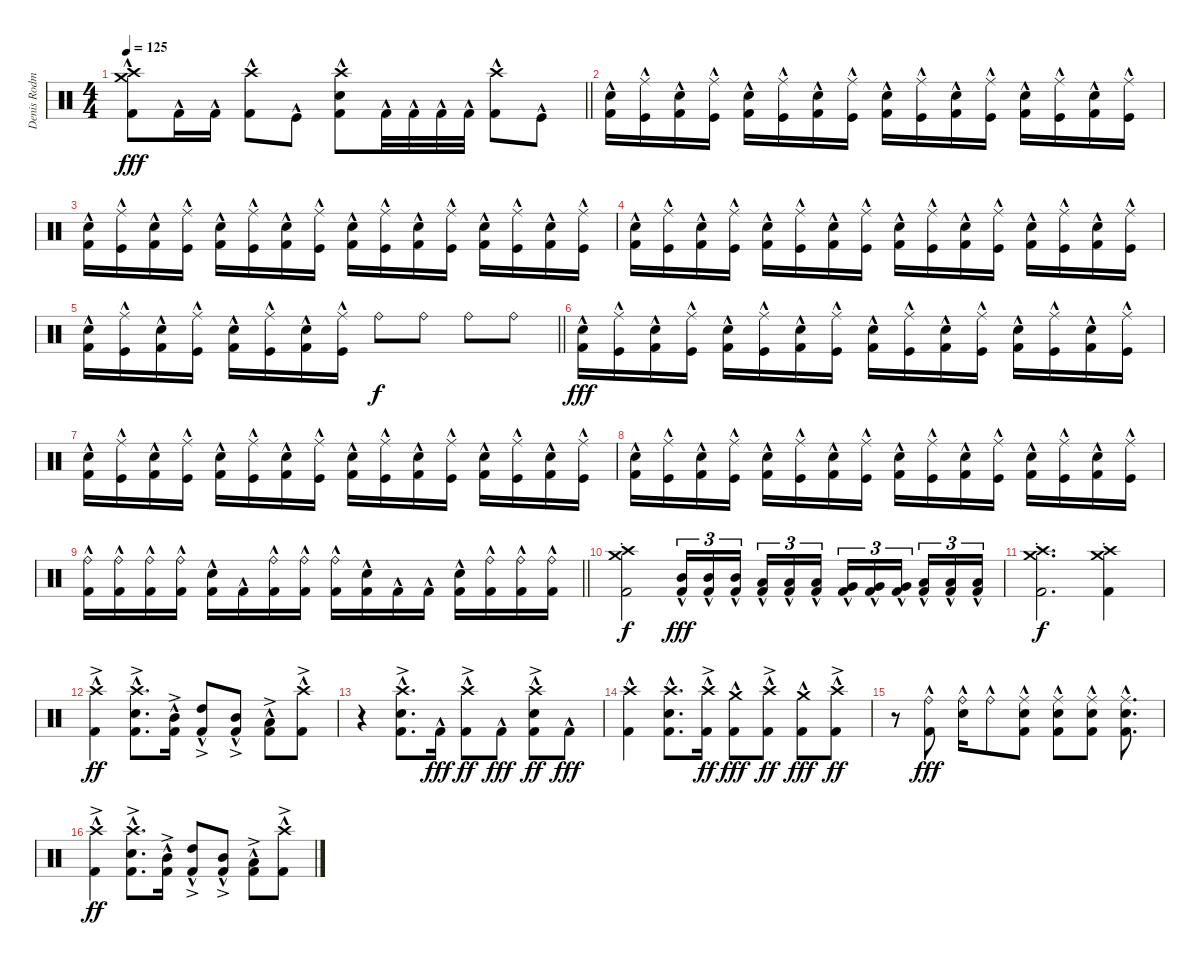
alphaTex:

\track ("Denis Rodman" "Denis Rodm") {instrument percussion}
\staff {score}
\articulation defaults
\ts (4 4)
\tempo 125
\clef neutral
\barLineRight lightlight
\ks c
("Crash high (hit)" "Kick (hit) 2"{hac} "Crash medium (hit)").8{dy fff} "Kick (hit) 2"{hac}.16 "Kick (hit) 2"{hac}.16 ("Crash high (hit)" "Kick (hit) 2"{hac}).8 "Kick (hit)"{hac}.8 ("Crash high (hit)" "Kick (hit) 2"{hac} "Snare (hit) 2").8 "Kick (hit) 2"{hac}.32 "Kick (hit) 2"{hac}.32 "Kick (hit) 2"{hac}.32 "Kick (hit) 2"{hac}.32 ("Crash high (hit)" "Kick (hit) 2"{hac}).8 "Kick (hit)"{hac}.8 |
("Kick (hit) 2"{hac} "Snare (hit) 2").16 ("Ride (middle)"{hac} "Kick (hit)"{hac}).16 ("Kick (hit) 2"{hac} "Snare (hit) 2").16 ("Ride (middle)"{hac} "Kick (hit)"{hac}).16 ("Kick (hit) 2"{hac} "Snare (hit) 2").16 ("Ride (middle)"{hac} "Kick (hit)"{hac}).16 ("Kick (hit) 2"{hac} "Snare (hit) 2").16 ("Ride (middle)"{hac} "Kick (hit)"{hac}).16 ("Kick (hit) 2"{hac} "Snare (hit) 2").16 ("Ride (middle)"{hac} "Kick (hit)"{hac}).16 ("Kick (hit) 2"{hac} "Snare (hit) 2").16 ("Ride (middle)"{hac} "Kick (hit)"{hac}).16 ("Kick (hit) 2"{hac} "Snare (hit) 2").16 ("Ride (middle)"{hac} "Kick (hit)"{hac}).16 ("Kick (hit) 2"{hac} "Snare (hit) 2").16 ("Ride (middle)"{hac} "Kick (hit)"{hac}).16 |
("Kick (hit) 2"{hac} "Snare (hit) 2").16 ("Ride (middle)"{hac} "Kick (hit)"{hac}).16 ("Kick (hit) 2"{hac} "Snare (hit) 2").16 ("Ride (middle)"{hac} "Kick (hit)"{hac}).16 ("Kick (hit) 2"{hac} "Snare (hit) 2").16 ("Ride (middle)"{hac} "Kick (hit)"{hac}).16 ("Kick (hit) 2"{hac} "Snare (hit) 2").16 ("Ride (middle)"{hac} "Kick (hit)"{hac}).16 ("Kick (hit) 2"{hac} "Snare (hit) 2").16 ("Ride (middle)"{hac} "Kick (hit)"{hac}).16 ("Kick (hit) 2"{hac} "Snare (hit) 2").16 ("Ride (middle)"{hac} "Kick (hit)"{hac}).16 ("Kick (hit) 2"{hac} "Snare (hit) 2").16 ("Ride (middle)"{hac} "Kick (hit)"{hac}).16 ("Kick (hit) 2"{hac} "Snare (hit) 2").16 ("Ride (middle)"{hac} "Kick (hit)"{hac}).16 |
("Kick (hit) 2"{hac} "Snare (hit) 2").16 ("Ride (middle)"{hac} "Kick (hit)"{hac}).16 ("Kick (hit) 2"{hac} "Snare (hit) 2").16 ("Ride (middle)"{hac} "Kick (hit)"{hac}).16 ("Kick (hit) 2"{hac} "Snare (hit) 2").16 ("Ride (middle)"{hac} "Kick (hit)"{hac}).16 ("Kick (hit) 2"{hac} "Snare (hit) 2").16 ("Ride (middle)"{hac} "Kick (hit)"{hac}).16 ("Kick (hit) 2"{hac} "Snare (hit) 2").16 ("Ride (middle)"{hac} "Kick (hit)"{hac}).16 ("Kick (hit) 2"{hac} "Snare (hit) 2").16 ("Ride (middle)"{hac} "Kick (hit)"{hac}).16 ("Kick (hit) 2"{hac} "Snare (hit) 2").16 ("Ride (middle)"{hac} "Kick (hit)"{hac}).16 ("Kick (hit) 2"{hac} "Snare (hit) 2").16 ("Ride (middle)"{hac} "Kick (hit)"{hac}).16 |
\barLineRight lightlight
("Kick (hit) 2"{hac} "Snare (hit) 2").16 ("Ride (middle)"{hac} "Kick (hit)"{hac}).16 ("Kick (hit) 2"{hac} "Snare (hit) 2").16 ("Ride (middle)"{hac} "Kick (hit)"{hac}).16 ("Kick (hit) 2"{hac} "Snare (hit) 2").16 ("Ride (middle)"{hac} "Kick (hit)"{hac}).16 ("Kick (hit) 2"{hac} "Snare (hit) 2").16 ("Ride (middle)"{hac} "Kick (hit)"{hac}).16 "Ride (bell)".8{dy f} "Ride (bell)".8 "Ride (bell)".8 "Ride (bell)".8 |
("Kick (hit) 2"{hac} "Snare (hit) 2").16{dy fff} ("Ride (middle)"{hac} "Kick (hit)"{hac}).16 ("Kick (hit) 2"{hac} "Snare (hit) 2").16 ("Ride (middle)"{hac} "Kick (hit)"{hac}).16 ("Kick (hit) 2"{hac} "Snare (hit) 2").16 ("Ride (middle)"{hac} "Kick (hit)"{hac}).16 ("Kick (hit) 2"{hac} "Snare (hit) 2").16 ("Ride (middle)"{hac} "Kick (hit)"{hac}).16 ("Kick (hit) 2"{hac} "Snare (hit) 2").16 ("Ride (middle)"{hac} "Kick (hit)"{hac}).16 ("Kick (hit) 2"{hac} "Snare (hit) 2").16 ("Ride (middle)"{hac} "Kick (hit)"{hac}).16 ("Kick (hit) 2"{hac} "Snare (hit) 2").16 ("Ride (middle)"{hac} "Kick (hit)"{hac}).16 ("Kick (hit) 2"{hac} "Snare (hit) 2").16 ("Ride (middle)"{hac} "Kick (hit)"{hac}).16 |
("Kick (hit) 2"{hac} "Snare (hit) 2").16 ("Ride (middle)"{hac} "Kick (hit)"{hac}).16 ("Kick (hit) 2"{hac} "Snare (hit) 2").16 ("Ride (middle)"{hac} "Kick (hit)"{hac}).16 ("Kick (hit) 2"{hac} "Snare (hit) 2").16 ("Ride (middle)"{hac} "Kick (hit)"{hac}).16 ("Kick (hit) 2"{hac} "Snare (hit) 2").16 ("Ride (middle)"{hac} "Kick (hit)"{hac}).16 ("Kick (hit) 2"{hac} "Snare (hit) 2").16 ("Ride (middle)"{hac} "Kick (hit)"{hac}).16 ("Kick (hit) 2"{hac} "Snare (hit) 2").16 ("Ride (middle)"{hac} "Kick (hit)"{hac}).16 ("Kick (hit) 2"{hac} "Snare (hit) 2").16 ("Ride (middle)"{hac} "Kick (hit)"{hac}).16 ("Kick (hit) 2"{hac} "Snare (hit) 2").16 ("Ride (middle)"{hac} "Kick (hit)"{hac}).16 |
("Kick (hit) 2"{hac} "Snare (hit) 2").16 ("Ride (middle)"{hac} "Kick (hit)"{hac}).16 ("Kick (hit) 2"{hac} "Snare (hit) 2").16 ("Ride (middle)"{hac} "Kick (hit)"{hac}).16 ("Kick (hit) 2"{hac} "Snare (hit) 2").16 ("Ride (middle)"{hac} "Kick (hit)"{hac}).16 ("Kick (hit) 2"{hac} "Snare (hit) 2").16 ("Ride (middle)"{hac} "Kick (hit)"{hac}).16 ("Kick (hit) 2"{hac} "Snare (hit) 2").16 ("Ride (middle)"{hac} "Kick (hit)"{hac}).16 ("Kick (hit) 2"{hac} "Snare (hit) 2").16 ("Ride (middle)"{hac} "Kick (hit)"{hac}).16 ("Kick (hit) 2"{hac} "Snare (hit) 2").16 ("Ride (middle)"{hac} "Kick (hit)"{hac}).16 ("Kick (hit) 2"{hac} "Snare (hit) 2").16 ("Ride (middle)"{hac} "Kick (hit)"{hac}).16 |
\barLineRight lightlight
("Ride (bell)"{hac} "Kick (hit) 2"{hac}).16 ("Ride (bell)"{hac} "Kick (hit) 2"{hac}).16 ("Ride (bell)"{hac} "Kick (hit) 2"{hac}).16 ("Ride (bell)"{hac} "Kick (hit) 2"{hac}).16 ("Kick (hit) 2"{hac} "Snare (hit) 2").16 "Kick (hit) 2"{hac}.16 ("Ride (bell)"{hac} "Kick (hit) 2"{hac}).16 ("Ride (bell)"{hac} "Kick (hit) 2"{hac}).16 ("Ride (bell)"{hac} "Kick (hit) 2"{hac}).16 ("Kick (hit) 2"{hac} "Snare (hit) 2").16 "Kick (hit) 2"{hac}.16 "Kick (hit) 2"{hac}.16 ("Kick (hit) 2"{hac} "Snare (hit) 2").16 ("Ride (bell)"{hac} "Kick (hit) 2"{hac}).16 ("Ride (bell)"{hac} "Kick (hit) 2"{hac}).16 ("Ride (bell)"{hac} "Kick (hit) 2"{hac}).16 |
("Crash high (hit)" "Crash medium (hit)" "Kick (hit) 2"{st}).2{dy f} ("Mid Tom (hit)"{hac} "Kick (hit) 2").16{tu (3 2) dy fff} ("Mid Tom (hit)"{hac} "Kick (hit) 2").16{tu (3 2)} ("Mid Tom (hit)"{hac} "Kick (hit) 2").16{tu (3 2) beam splitsecondary} ("Low Tom (hit)"{hac} "Kick (hit) 2").16{tu (3 2)} ("Low Tom (hit)"{hac} "Kick (hit) 2").16{tu (3 2)} ("Low Tom (hit)"{hac} "Kick (hit) 2").16{tu (3 2)} ("Very Low Tom (hit)"{hac} "Kick (hit) 2").16{tu (3 2)} ("Very Low Tom (hit)"{hac} "Kick (hit) 2").16{tu (3 2)} ("Very Low Tom (hit)"{hac} "Kick (hit) 2").16{tu (3 2) beam splitsecondary} ("Low Floor Tom (hit)"{hac} "Kick (hit) 2").16{tu (3 2)} ("Low Floor Tom (hit)"{hac} "Kick (hit) 2").16{tu (3 2)} ("Low Floor Tom (hit)"{hac} "Kick (hit) 2").16{tu (3 2)} |
("Crash high (hit)" "Crash medium (hit)" "Kick (hit) 2"{st}).2{d dy f} ("Crash high (hit)" "Crash medium (hit)" "Kick (hit) 2"{st}).4 |
("Kick (hit) 2"{hac} "Crash high (hit)"{ac}).4{dy ff} ("Kick (hit) 2"{hac} "Snare (hit) 2" "Crash high (hit)"{ac}).8{d} ("Kick (hit) 2"{hac} "Mid Tom (hit)"{ac}).16 ("Kick (hit) 2"{hac} "High Tom (hit)"{ac}).8 ("Kick (hit) 2"{hac} "Mid Tom (hit)"{ac}).8 ("Kick (hit) 2"{hac} "Low Tom (hit)"{ac}).8 ("Kick (hit) 2"{hac} "Crash high (hit)"{ac}).8 |
r.4 ("Kick (hit) 2"{hac} "Snare (hit) 2" "Crash high (hit)"{ac}).8{d} "Kick (hit) 2"{hac}.16{dy fff} ("Kick (hit) 2"{hac} "Crash high (hit)"{ac}).8{dy ff} "Kick (hit) 2"{hac}.8{dy fff} ("Kick (hit) 2"{hac} "Snare (hit) 2" "Crash high (hit)"{ac}).8{dy ff} "Kick (hit) 2"{hac}.8{dy fff} |
("Kick (hit) 2"{hac} "Crash high (hit)"{hac}).4 ("Kick (hit) 2"{hac} "Snare (hit) 2" "Crash high (hit)"{hac}).8{d} ("Kick (hit) 2"{hac} "Crash high (hit)"{ac}).16{dy ff} ("Kick (hit) 2"{hac} "Crash medium (hit)"{hac}).8{dy fff} ("Kick (hit) 2"{hac} "Crash high (hit)"{ac}).8{dy ff} ("Kick (hit) 2"{hac} "Crash medium (hit)"{hac}).8{dy fff} ("Kick (hit) 2"{hac} "Crash high (hit)"{ac}).8{dy ff} |
r.8 ("Ride (bell)"{hac} "Kick (hit) 2"{hac}).8{dy fff} ("Ride (bell)"{hac} "Snare (hit) 2").16 "Ride (bell)"{hac}.8 ("Kick (hit) 2"{hac} "Snare (hit) 2" "Ride (middle)"{hac}).8 ("Kick (hit) 2"{hac} "Snare (hit) 2" "Ride (middle)"{hac}).8 ("Kick (hit) 2"{hac} "Snare (hit) 2" "Ride (middle)"{hac}).8 ("Kick (hit) 2"{hac} "Snare (hit) 2" "Ride (middle)"{hac}).8{d} |
("Kick (hit) 2"{hac} "Crash high (hit)"{ac}).4{dy ff} ("Kick (hit) 2"{hac} "Snare (hit) 2" "Crash high (hit)"{ac}).8{d} ("Kick (hit) 2"{hac} "Mid Tom (hit)"{ac}).16 ("Kick (hit) 2"{hac} "High Tom (hit)"{ac}).8 ("Kick (hit) 2"{hac} "Mid Tom (hit)"{ac}).8 ("Kick (hit) 2"{hac} "Low Tom (hit)"{ac}).8 ("Kick (hit) 2"{hac} "Crash high (hit)"{ac}).8
